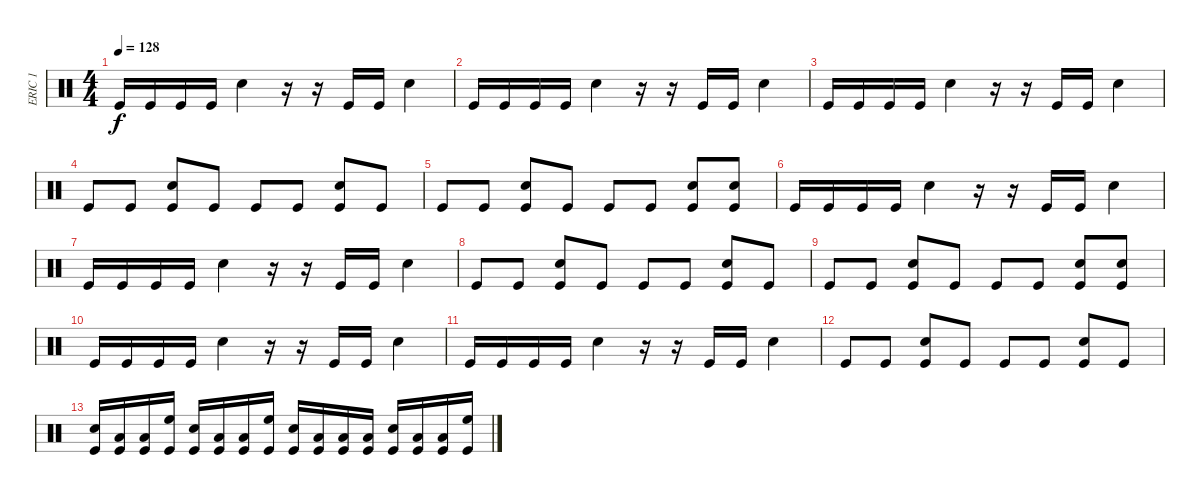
\track ("ERIC 1" "ERIC 1") {instrument percussion}
\staff {score}
\articulation defaults
\ts (4 4)
\tempo 128
\clef neutral
\ks c "Kick (hit)".16{dy f} "Kick (hit)".16 "Kick (hit)".16 "Kick (hit)".16 "Electric Snare (hit)".4
r.16 r.16 "Kick (hit)".16 "Kick (hit)".16 "Electric Snare (hit)".4 |
"Kick (hit)".16 "Kick (hit)".16 "Kick (hit)".16 "Kick (hit)".16 "Electric Snare (hit)".4 r.16 r.16 "Kick (hit)".16 "Kick (hit)".16 "Electric Snare (hit)".4 |
"Kick (hit)".16 "Kick (hit)".16 "Kick (hit)".16 "Kick (hit)".16 "Electric Snare (hit)".4 r.16 r.16 "Kick (hit)".16 "Kick (hit)".16 "Electric Snare (hit)".4 |
"Kick (hit)".8 "Kick (hit)".8 ("Electric Snare (hit)" "Kick (hit)").8 "Kick (hit)".8 "Kick (hit)".8 "Kick (hit)".8 ("Electric Snare (hit)" "Kick (hit)").8 "Kick (hit)".8 |
"Kick (hit)".8 "Kick (hit)".8 ("Electric Snare (hit)" "Kick (hit)").8 "Kick (hit)".8 "Kick (hit)".8 "Kick (hit)".8 ("Electric Snare (hit)" "Kick (hit)").8 ("Electric Snare (hit)" "Kick (hit)").8 |
"Kick (hit)".16 "Kick (hit)".16 "Kick (hit)".16 "Kick (hit)".16 "Electric Snare (hit)".4 r.16 r.16 "Kick (hit)".16 "Kick (hit)".16 "Electric Snare (hit)".4 |
"Kick (hit)".16 "Kick (hit)".16 "Kick (hit)".16 "Kick (hit)".16 "Electric Snare (hit)".4 r.16 r.16 "Kick (hit)".16 "Kick (hit)".16 "Electric Snare (hit)".4 |
"Kick (hit)".8 "Kick (hit)".8 ("Electric Snare (hit)" "Kick (hit)").8 "Kick (hit)".8 "Kick (hit)".8 "Kick (hit)".8 ("Electric Snare (hit)" "Kick (hit)").8 "Kick (hit)".8 |
"Kick (hit)".8 "Kick (hit)".8 ("Electric Snare (hit)" "Kick (hit)").8 "Kick (hit)".8 "Kick (hit)".8 "Kick (hit)".8 ("Electric Snare (hit)" "Kick (hit)").8 ("Electric Snare (hit)" "Kick (hit)").8 |
"Kick (hit)".16 "Kick (hit)".16 "Kick (hit)".16 "Kick (hit)".16 "Electric Snare (hit)".4 r.16 r.16 "Kick (hit)".16 "Kick (hit)".16 "Electric Snare (hit)".4 |
"Kick (hit)".16 "Kick (hit)".16 "Kick (hit)".16 "Kick (hit)".16 "Electric Snare (hit)".4 r.16 r.16 "Kick (hit)".16 "Kick (hit)".16 "Electric Snare (hit)".4 |
"Kick (hit)".8 "Kick (hit)".8 ("Electric Snare (hit)" "Kick (hit)").8 "Kick (hit)".8 "Kick (hit)".8 "Kick (hit)".8 ("Electric Snare (hit)" "Kick (hit)").8 "Kick (hit)".8 |
("Electric Snare (hit)" "Kick (hit)").16 ("Low Floor Tom (hit)" "Kick (hit)").16 ("Low Tom (hit)" "Kick (hit)").16 ("High Floor Tom (hit)" "Kick (hit)").16 ("Electric Snare (hit)" "Kick (hit)").16 ("Low Floor Tom (hit)" "Kick (hit)").16 ("Low Tom (hit)" "Kick (hit)").16 ("High Floor Tom (hit)" "Kick (hit)").16 ("Electric Snare (hit)" "Kick (hit)").16 ("Low Floor Tom (hit)" "Kick (hit)").16 ("Low Tom (hit)" "Kick (hit)").16 ("Low Floor Tom (hit)" "Kick (hit)").16 ("Electric Snare (hit)" "Kick (hit)").16 ("Low Floor Tom (hit)" "Kick (hit)").16 ("Low Tom (hit)" "Kick (hit)").16 ("High Floor Tom (hit)" "Kick (hit)").16
